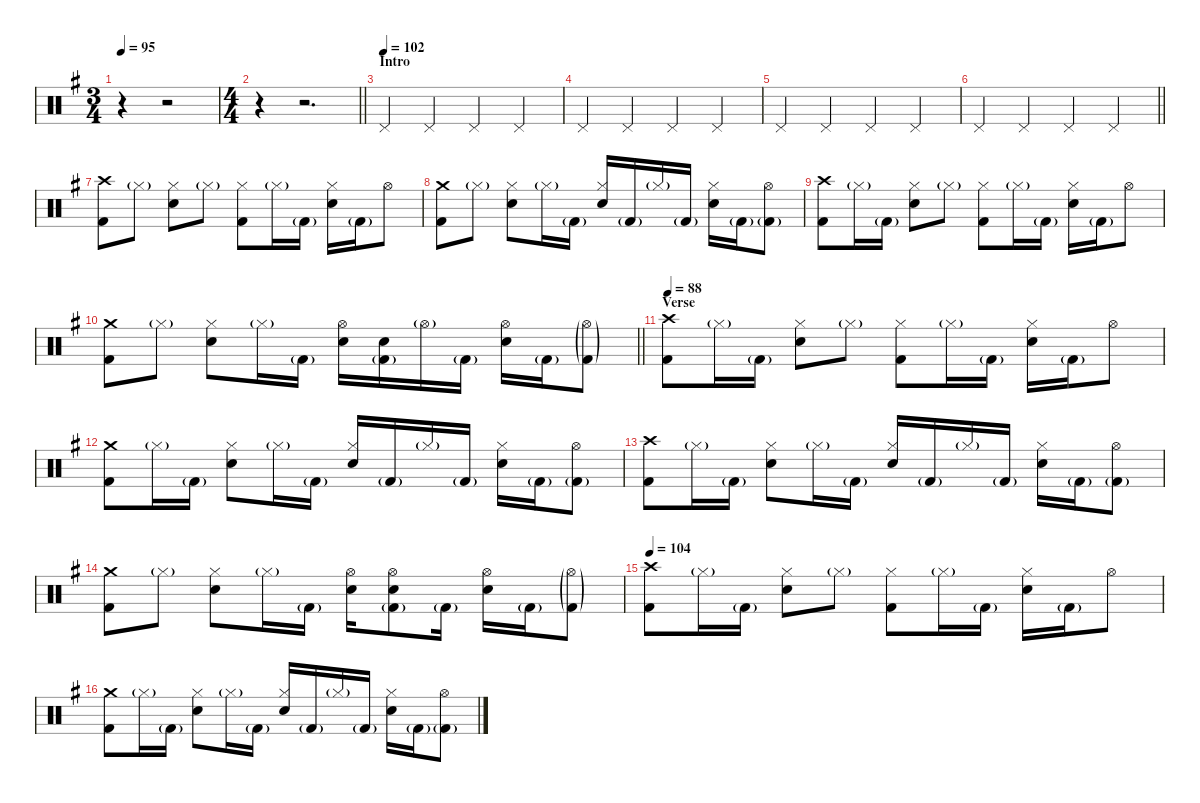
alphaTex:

\defaultSystemsLayout 4
\hideDynamics
\bracketExtendMode nobrackets
\singleTrackTrackNamePolicy hidden
\multiTrackTrackNamePolicy hidden
\firstSystemTrackNameMode fullname
\firstSystemTrackNameOrientation horizontal
\otherSystemsTrackNameOrientation horizontal
\track ("Bill" "drm.") {instrument percussion}
\staff {score}
\articulation defaults
\ts (3 4)
\beaming (8 2 2 2)
\tempo 95
\clef neutral
\ks eminor
r.4{dy mp beam Down} r.2{beam Down} |
\ts (4 4)
\beaming (8 2 2 2 2)
\barLineRight lightlight
r.4{beam Down} r.2{d beam Down} |
\section ("" "Intro")
\tempo (102)
"Pedal Hi-Hat (hit)"{acc forcenatural}.4{beam Up} "Pedal Hi-Hat (hit)"{acc forcenatural}.4{beam Up} "Pedal Hi-Hat (hit)"{acc forcenatural}.4{beam Up} "Pedal Hi-Hat (hit)"{acc forcenatural}.4{beam Up} |
"Pedal Hi-Hat (hit)"{acc forcenatural}.4{beam Up} "Pedal Hi-Hat (hit)"{acc forcenatural}.4{beam Up} "Pedal Hi-Hat (hit)"{acc forcenatural}.4{beam Up} "Pedal Hi-Hat (hit)"{acc forcenatural}.4{beam Up} |
"Pedal Hi-Hat (hit)"{acc forcenatural}.4{beam Up} "Pedal Hi-Hat (hit)"{acc forcenatural}.4{beam Up} "Pedal Hi-Hat (hit)"{acc forcenatural}.4{beam Up} "Pedal Hi-Hat (hit)"{acc forcenatural}.4{beam Up} |
\barLineRight lightlight "Pedal Hi-Hat (hit)"{acc forcenatural}.4{beam Up} "Pedal Hi-Hat (hit)"{acc forcenatural}.4{beam Up} "Pedal Hi-Hat (hit)"{acc forcenatural}.4{beam Up} "Pedal Hi-Hat (hit)"{acc forcenatural}.4{beam Up}
|
\section ("" "")
("Crash high (hit)"{acc forcenatural} "Kick (hit) 2"{acc forcenatural}).8{dy f beam Down} "Hi-Hat (closed)"{g acc forcenatural}.8{dy mf beam Down} ("Hi-Hat (closed)"{acc forcenatural} "Snare (hit) 2"{acc forcenatural}).8{dy f beam Down} "Hi-Hat (closed)"{g acc forcenatural}.8{dy mf beam Down} ("Hi-Hat (closed)"{acc forcenatural} "Kick (hit) 2"{acc forcenatural}).8{dy f beam Down} "Hi-Hat (closed)"{g acc forcenatural}.16{dy mf beam Down} "Kick (hit) 2"{g acc forcenatural}.16{beam Down} ("Hi-Hat (closed)"{acc forcenatural} "Snare (hit) 2"{acc forcenatural}).16{dy f beam Down} "Kick (hit) 2"{g acc forcenatural}.16{dy mf beam Down} "Hi-Hat (open)"{acc forcenatural}.8{beam Down} |
("Crash medium (hit)"{acc forcenatural} "Kick (hit) 2"{acc forcenatural}).8{dy f beam Down} "Hi-Hat (closed)"{g acc forcenatural}.8{dy mf beam Down} ("Hi-Hat (closed)"{acc forcenatural} "Snare (hit) 2"{acc forcenatural}).8{dy f beam Down} "Hi-Hat (closed)"{g acc forcenatural}.16{dy mf beam Down} "Kick (hit) 2"{g acc forcenatural}.16{beam Down} ("Hi-Hat (closed)"{acc forcenatural} "Snare (hit) 2"{acc forcenatural}).16{dy f beam Up} "Kick (hit) 2"{g acc forcenatural}.16{dy mf beam Up} "Hi-Hat (closed)"{g acc forcenatural}.16{beam Up} "Kick (hit) 2"{g acc forcenatural}.16{beam Up} ("Hi-Hat (closed)"{acc forcenatural} "Snare (hit) 2"{acc forcenatural}).16{dy f beam Down} "Kick (hit) 2"{g acc forcenatural}.16{dy mf beam Down} ("Hi-Hat (open)"{acc forcenatural} "Kick (hit) 2"{g acc forcenatural}).8{dy f beam Down} |
("Crash high (hit)"{acc forcenatural} "Kick (hit) 2"{acc forcenatural}).8{beam Down} "Hi-Hat (closed)"{g acc forcenatural}.16{dy mf beam Down} "Kick (hit) 2"{g acc forcenatural}.16{beam Down} ("Hi-Hat (closed)"{acc forcenatural} "Snare (hit) 2"{acc forcenatural}).8{dy f beam Down} "Hi-Hat (closed)"{g acc forcenatural}.8{dy mf beam Down} ("Hi-Hat (closed)"{acc forcenatural} "Kick (hit) 2"{acc forcenatural}).8{dy f beam Down} "Hi-Hat (closed)"{g acc forcenatural}.16{dy mf beam Down} "Kick (hit) 2"{g acc forcenatural}.16{beam Down} ("Hi-Hat (closed)"{acc forcenatural} "Snare (hit) 2"{acc forcenatural}).16{dy f beam Down} "Kick (hit) 2"{g acc forcenatural}.16{dy mf beam Down} "Hi-Hat (open)"{acc forcenatural}.8{dy f beam Down} |
\barLineRight lightlight
("Crash medium (hit)"{acc forcenatural} "Kick (hit) 2"{acc forcenatural}).8{beam Down} "Hi-Hat (closed)"{g acc forcenatural}.8{dy mf beam Down} ("Hi-Hat (closed)"{acc forcenatural} "Snare (hit) 2"{acc forcenatural}).8{dy f beam Down} "Hi-Hat (closed)"{g acc forcenatural}.16{dy mf beam Down} "Kick (hit) 2"{g acc forcenatural}.16{beam Down} ("Hi-Hat (open)"{acc forcenatural} "Snare (hit) 2"{acc forcenatural}).16{dy f beam Down} ("Snare (hit) 2"{acc forcenatural} "Kick (hit) 2"{g acc forcenatural}).16{beam Down} "Hi-Hat (open)"{g acc forcenatural}.16{dy mf beam Down} "Kick (hit) 2"{g acc forcenatural}.16{beam Down} ("Hi-Hat (open)"{acc forcenatural} "Snare (hit) 2"{acc forcenatural}).16{dy f beam Down} "Kick (hit) 2"{g acc forcenatural}.16{dy mf beam Down} ("Hi-Hat (open)"{g acc forcenatural} "Kick (hit) 2"{g acc forcenatural}).8{beam Down} |
\section ("" "Verse")
\tempo 88
("Crash high (hit)"{acc forcenatural} "Kick (hit) 2"{acc forcenatural}).8{dy f beam Down} "Hi-Hat (closed)"{g acc forcenatural}.16{dy mf beam Down} "Kick (hit) 2"{g acc forcenatural}.16{beam Down} ("Hi-Hat (closed)"{acc forcenatural} "Snare (hit) 2"{acc forcenatural}).8{dy f beam Down} "Hi-Hat (closed)"{g acc forcenatural}.8{dy mf beam Down} ("Hi-Hat (closed)"{acc forcenatural} "Kick (hit) 2"{acc forcenatural}).8{dy f beam Down} "Hi-Hat (closed)"{g acc forcenatural}.16{dy mf beam Down} "Kick (hit) 2"{g acc forcenatural}.16{beam Down} ("Hi-Hat (closed)"{acc forcenatural} "Snare (hit) 2"{acc forcenatural}).16{dy f beam Down} "Kick (hit) 2"{g acc forcenatural}.16{dy mf beam Down} "Hi-Hat (open)"{acc forcenatural}.8{dy f beam Down} |
("Crash medium (hit)"{acc forcenatural} "Kick (hit) 2"{acc forcenatural}).8{beam Down} "Hi-Hat (closed)"{g acc forcenatural}.16{dy mf beam Down} "Kick (hit) 2"{g acc forcenatural}.16{beam Down} ("Hi-Hat (closed)"{acc forcenatural} "Snare (hit) 2"{acc forcenatural}).8{dy f beam Down} "Hi-Hat (closed)"{g acc forcenatural}.16{dy mf beam Down} "Kick (hit) 2"{g acc forcenatural}.16{beam Down} ("Hi-Hat (closed)"{acc forcenatural} "Snare (hit) 2"{acc forcenatural}).16{dy f beam Up} "Kick (hit) 2"{g acc forcenatural}.16{dy mf beam Up} "Hi-Hat (closed)"{g acc forcenatural}.16{beam Up} "Kick (hit) 2"{g acc forcenatural}.16{beam Up} ("Hi-Hat (closed)"{acc forcenatural} "Snare (hit) 2"{acc forcenatural}).16{dy f beam Down} "Kick (hit) 2"{g acc forcenatural}.16{dy mf beam Down} ("Hi-Hat (open)"{acc forcenatural} "Kick (hit) 2"{g acc forcenatural}).8{dy f beam Down} |
("Crash high (hit)"{acc forcenatural} "Kick (hit) 2"{acc forcenatural}).8{beam Down} "Hi-Hat (closed)"{g acc forcenatural}.16{dy mf beam Down} "Kick (hit) 2"{g acc forcenatural}.16{beam Down} ("Hi-Hat (closed)"{acc forcenatural} "Snare (hit) 2"{acc forcenatural}).8{dy f beam Down} "Hi-Hat (closed)"{g acc forcenatural}.16{dy mf beam Down} "Kick (hit) 2"{g acc forcenatural}.16{beam Down} ("Hi-Hat (closed)"{acc forcenatural} "Snare (hit) 2"{acc forcenatural}).16{dy f beam Up} "Kick (hit) 2"{g acc forcenatural}.16{dy mf beam Up} "Hi-Hat (closed)"{g acc forcenatural}.16{beam Up} "Kick (hit) 2"{g acc forcenatural}.16{beam Up} ("Hi-Hat (closed)"{acc forcenatural} "Snare (hit) 2"{acc forcenatural}).16{dy f beam Down} "Kick (hit) 2"{g acc forcenatural}.16{dy mf beam Down} ("Hi-Hat (open)"{acc forcenatural} "Kick (hit) 2"{g acc forcenatural}).8{dy f beam Down} |
("Crash medium (hit)"{acc forcenatural} "Kick (hit) 2"{acc forcenatural}).8{beam Down} "Hi-Hat (closed)"{g acc forcenatural}.8{dy mf beam Down} ("Hi-Hat (closed)"{acc forcenatural} "Snare (hit) 2"{acc forcenatural}).8{dy f beam Down} "Hi-Hat (closed)"{g acc forcenatural}.16{dy mf beam Down} "Kick (hit) 2"{g acc forcenatural}.16{beam Down} ("Hi-Hat (open)"{acc forcenatural} "Snare (hit) 2"{acc forcenatural}).16{dy f beam Down} ("Hi-Hat (open)"{acc forcenatural} "Snare (hit) 2"{acc forcenatural} "Kick (hit) 2"{g acc forcenatural}).8{beam Down} "Kick (hit) 2"{g acc forcenatural}.16{dy mf beam Down} ("Hi-Hat (open)"{acc forcenatural} "Snare (hit) 2"{acc forcenatural}).16{dy f beam Down} "Kick (hit) 2"{g acc forcenatural}.16{dy mf beam Down} ("Hi-Hat (open)"{g acc forcenatural} "Kick (hit) 2"{g acc forcenatural}).8{beam Down} |
\tempo 104
("Crash high (hit)"{acc forcenatural} "Kick (hit) 2"{acc forcenatural}).8{dy f beam Down} "Hi-Hat (closed)"{g acc forcenatural}.16{dy mf beam Down} "Kick (hit) 2"{g acc forcenatural}.16{beam Down} ("Hi-Hat (closed)"{acc forcenatural} "Snare (hit) 2"{acc forcenatural}).8{dy f beam Down} "Hi-Hat (closed)"{g acc forcenatural}.8{dy mf beam Down} ("Hi-Hat (closed)"{acc forcenatural} "Kick (hit) 2"{acc forcenatural}).8{dy f beam Down} "Hi-Hat (closed)"{g acc forcenatural}.16{dy mf beam Down} "Kick (hit) 2"{g acc forcenatural}.16{beam Down} ("Hi-Hat (closed)"{acc forcenatural} "Snare (hit) 2"{acc forcenatural}).16{dy f beam Down} "Kick (hit) 2"{g acc forcenatural}.16{dy mf beam Down} "Hi-Hat (open)"{acc forcenatural}.8{dy f beam Down} |
("Crash medium (hit)"{acc forcenatural} "Kick (hit) 2"{acc forcenatural}).8{beam Down} "Hi-Hat (closed)"{g acc forcenatural}.16{dy mf beam Down} "Kick (hit) 2"{g acc forcenatural}.16{beam Down} ("Hi-Hat (closed)"{acc forcenatural} "Snare (hit) 2"{acc forcenatural}).8{dy f beam Down} "Hi-Hat (closed)"{g acc forcenatural}.16{dy mf beam Down} "Kick (hit) 2"{g acc forcenatural}.16{beam Down} ("Hi-Hat (closed)"{acc forcenatural} "Snare (hit) 2"{acc forcenatural}).16{dy f beam Up} "Kick (hit) 2"{g acc forcenatural}.16{dy mf beam Up} "Hi-Hat (closed)"{g acc forcenatural}.16{beam Up} "Kick (hit) 2"{g acc forcenatural}.16{beam Up} ("Hi-Hat (closed)"{acc forcenatural} "Snare (hit) 2"{acc forcenatural}).16{dy f beam Down} "Kick (hit) 2"{g acc forcenatural}.16{dy mf beam Down} ("Hi-Hat (open)"{acc forcenatural} "Kick (hit) 2"{g acc forcenatural}).8{dy f beam Down}
